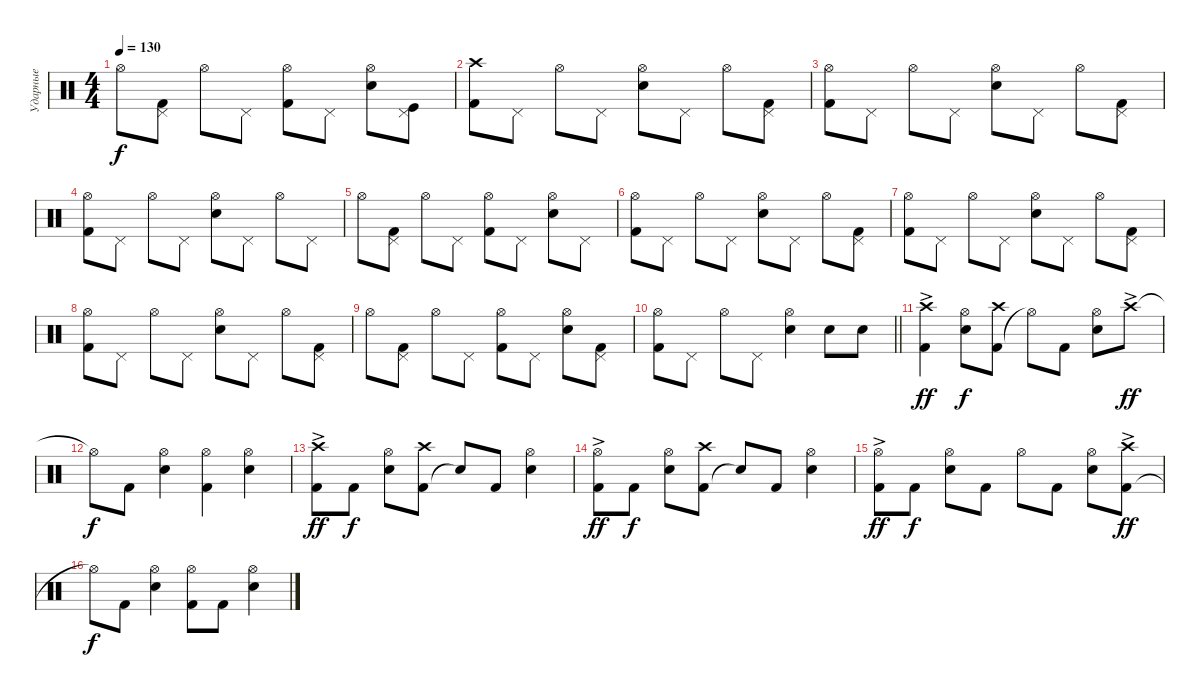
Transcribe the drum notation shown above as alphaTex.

\track ("Ударные" "Ударные") {instrument percussion}
\staff {score}
\articulation defaults
\ts (4 4)
\tempo 130
\clef neutral
\ks c "Hi-Hat (open)".8{dy f}
("Kick (hit) 2" "Pedal Hi-Hat (hit)").8 "Hi-Hat (open)".8 "Pedal Hi-Hat (hit)".8 ("Kick (hit) 2" "Hi-Hat (open)").8 "Pedal Hi-Hat (hit)".8 ("Snare (hit) 2" "Hi-Hat (open)").8 ("Kick (hit)" "Pedal Hi-Hat (hit)").8 |
("Kick (hit) 2" "Crash high (hit)").8 "Pedal Hi-Hat (hit)".8 "Hi-Hat (open)".8 "Pedal Hi-Hat (hit)".8 ("Snare (hit) 2" "Hi-Hat (open)").8 "Pedal Hi-Hat (hit)".8 "Hi-Hat (open)".8 ("Kick (hit) 2" "Pedal Hi-Hat (hit)").8 |
("Kick (hit) 2" "Hi-Hat (open)").8 "Pedal Hi-Hat (hit)".8 "Hi-Hat (open)".8 "Pedal Hi-Hat (hit)".8 ("Snare (hit) 2" "Hi-Hat (open)").8 "Pedal Hi-Hat (hit)".8 "Hi-Hat (open)".8 ("Kick (hit) 2" "Pedal Hi-Hat (hit)").8 |
("Kick (hit) 2" "Hi-Hat (open)").8 "Pedal Hi-Hat (hit)".8 "Hi-Hat (open)".8 "Pedal Hi-Hat (hit)".8 ("Snare (hit) 2" "Hi-Hat (open)").8 "Pedal Hi-Hat (hit)".8 "Hi-Hat (open)".8 "Pedal Hi-Hat (hit)".8 |
"Hi-Hat (open)".8 ("Kick (hit) 2" "Pedal Hi-Hat (hit)").8 "Hi-Hat (open)".8 "Pedal Hi-Hat (hit)".8 ("Kick (hit) 2" "Hi-Hat (open)").8 "Pedal Hi-Hat (hit)".8 ("Snare (hit) 2" "Hi-Hat (open)").8 "Pedal Hi-Hat (hit)".8 |
("Kick (hit) 2" "Hi-Hat (open)").8 "Pedal Hi-Hat (hit)".8 "Hi-Hat (open)".8 "Pedal Hi-Hat (hit)".8 ("Snare (hit) 2" "Hi-Hat (open)").8 "Pedal Hi-Hat (hit)".8 "Hi-Hat (open)".8 ("Kick (hit) 2" "Pedal Hi-Hat (hit)").8 |
("Kick (hit) 2" "Hi-Hat (open)").8 "Pedal Hi-Hat (hit)".8 "Hi-Hat (open)".8 "Pedal Hi-Hat (hit)".8 ("Snare (hit) 2" "Hi-Hat (open)").8 "Pedal Hi-Hat (hit)".8 "Hi-Hat (open)".8 ("Kick (hit) 2" "Pedal Hi-Hat (hit)").8 |
("Kick (hit) 2" "Hi-Hat (open)").8 "Pedal Hi-Hat (hit)".8 "Hi-Hat (open)".8 "Pedal Hi-Hat (hit)".8 ("Snare (hit) 2" "Hi-Hat (open)").8 "Pedal Hi-Hat (hit)".8 "Hi-Hat (open)".8 ("Kick (hit) 2" "Pedal Hi-Hat (hit)").8 |
"Hi-Hat (open)".8 ("Kick (hit) 2" "Pedal Hi-Hat (hit)").8 "Hi-Hat (open)".8 "Pedal Hi-Hat (hit)".8 ("Kick (hit) 2" "Hi-Hat (open)").8 "Pedal Hi-Hat (hit)".8 ("Snare (hit) 2" "Hi-Hat (open)").8 ("Kick (hit) 2" "Pedal Hi-Hat (hit)").8 |
\barLineRight lightlight
("Kick (hit) 2" "Hi-Hat (open)").8 "Pedal Hi-Hat (hit)".8 "Hi-Hat (open)".8 "Pedal Hi-Hat (hit)".8 ("Snare (hit) 2" "Hi-Hat (open)").4 "Snare (hit) 2".8 "Snare (hit) 2".8 |
("Kick (hit) 2" "Crash high (hit)"{ac}).4{dy ff} ("Snare (hit) 2" "Hi-Hat (open)").8{dy f} ("Kick (hit) 2" "Crash high (hit)").8 "Hi-Hat (open)"{t}.8 "Kick (hit) 2".8 ("Snare (hit) 2" "Hi-Hat (open)").8 "Crash high (hit)"{ac}.8{dy ff} |
"Hi-Hat (open)"{t}.8{dy f} "Kick (hit) 2".8 ("Snare (hit) 2" "Hi-Hat (open)").4 ("Kick (hit) 2" "Hi-Hat (open)").4 ("Snare (hit) 2" "Hi-Hat (open)").4 |
("Kick (hit) 2" "Crash high (hit)"{ac}).8{dy ff} "Kick (hit) 2".8{dy f} ("Snare (hit) 2" "Hi-Hat (open)").8 ("Kick (hit) 2" "Crash high (hit)").8 "Snare (hit)"{t}.8 "Kick (hit) 2".8 ("Snare (hit) 2" "Hi-Hat (open)").4 |
("Kick (hit) 2" "Hi-Hat (open)"{ac}).8{dy ff} "Kick (hit) 2".8{dy f} ("Snare (hit) 2" "Hi-Hat (open)").8 ("Kick (hit) 2" "Crash high (hit)").8 "Snare (hit)"{t}.8 "Kick (hit) 2".8 ("Snare (hit) 2" "Hi-Hat (open)").4 |
("Kick (hit) 2" "Hi-Hat (open)"{ac}).8{dy ff} "Kick (hit) 2".8{dy f} ("Snare (hit) 2" "Hi-Hat (open)").8 "Kick (hit) 2".8 "Hi-Hat (open)".8 "Kick (hit) 2".8 ("Snare (hit) 2" "Hi-Hat (open)").8 ("Kick (hit) 2" "Crash high (hit)"{ac}).8{dy ff} |
"Hi-Hat (open)"{t}.8{dy f} "Kick (hit) 2".8 ("Snare (hit) 2" "Hi-Hat (open)").4 ("Kick (hit) 2" "Hi-Hat (open)").8 "Kick (hit) 2".8 ("Snare (hit) 2" "Hi-Hat (open)").4
